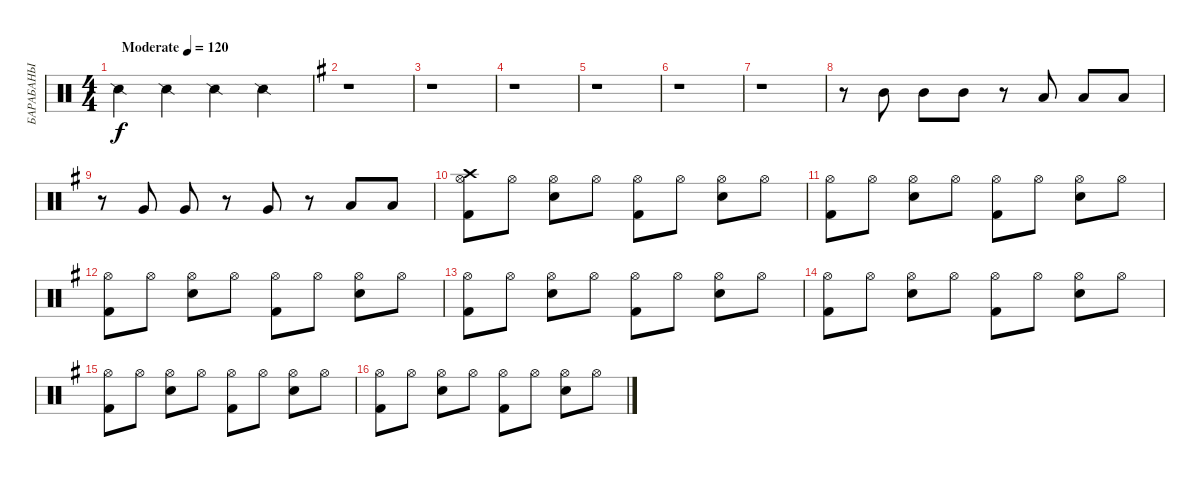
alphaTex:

\track ("БАРАБАНЫ" "БАРАБАНЫ") {instrument percussion}
\staff {score}
\articulation defaults
\ts (4 4)
\tempo (120 "Moderate")
\clef neutral
\ks c "Snare (side stick) 2".4{dy f} "Snare (side stick) 2".4 "Snare (side stick) 2".4 "Snare (side stick) 2".4
|
\ks g
r.1 |
r.1 |
r.1 |
r.1 |
r.1 |
r.1 |
r.8 "Mid Tom (hit)".8 "Mid Tom (hit)".8 "Mid Tom (hit)".8 r.8 "Low Tom (hit)".8 "Low Tom (hit)".8 "Low Tom (hit)".8 |
r.8 "Very Low Tom (hit)".8 "Very Low Tom (hit)".8 r.8 "Very Low Tom (hit)".8 r.8 "Low Floor Tom (hit)".8 "Low Floor Tom (hit)".8 |
("Hi-Hat (open)" "Crash high (hit)" "Kick (hit) 2").8 "Hi-Hat (open)".8 ("Hi-Hat (open)" "Electric Snare (hit)").8 "Hi-Hat (open)".8 ("Hi-Hat (open)" "Kick (hit) 2").8 "Hi-Hat (open)".8 ("Hi-Hat (open)" "Electric Snare (hit)").8 "Hi-Hat (open)".8 |
("Hi-Hat (open)" "Kick (hit) 2").8 "Hi-Hat (open)".8 ("Hi-Hat (open)" "Electric Snare (hit)").8 "Hi-Hat (open)".8 ("Hi-Hat (open)" "Kick (hit) 2").8 "Hi-Hat (open)".8 ("Hi-Hat (open)" "Electric Snare (hit)").8 "Hi-Hat (open)".8 |
("Hi-Hat (open)" "Kick (hit) 2").8 "Hi-Hat (open)".8 ("Hi-Hat (open)" "Electric Snare (hit)").8 "Hi-Hat (open)".8 ("Hi-Hat (open)" "Kick (hit) 2").8 "Hi-Hat (open)".8 ("Hi-Hat (open)" "Electric Snare (hit)").8 "Hi-Hat (open)".8 |
("Hi-Hat (open)" "Kick (hit) 2").8 "Hi-Hat (open)".8 ("Hi-Hat (open)" "Electric Snare (hit)").8 "Hi-Hat (open)".8 ("Hi-Hat (open)" "Kick (hit) 2").8 "Hi-Hat (open)".8 ("Hi-Hat (open)" "Electric Snare (hit)").8 "Hi-Hat (open)".8 |
("Hi-Hat (open)" "Kick (hit) 2").8 "Hi-Hat (open)".8 ("Hi-Hat (open)" "Electric Snare (hit)").8 "Hi-Hat (open)".8 ("Hi-Hat (open)" "Kick (hit) 2").8 "Hi-Hat (open)".8 ("Hi-Hat (open)" "Electric Snare (hit)").8 "Hi-Hat (open)".8 |
("Hi-Hat (open)" "Kick (hit) 2").8 "Hi-Hat (open)".8 ("Hi-Hat (open)" "Electric Snare (hit)").8 "Hi-Hat (open)".8 ("Hi-Hat (open)" "Kick (hit) 2").8 "Hi-Hat (open)".8 ("Hi-Hat (open)" "Electric Snare (hit)").8 "Hi-Hat (open)".8 |
("Hi-Hat (open)" "Kick (hit) 2").8 "Hi-Hat (open)".8 ("Hi-Hat (open)" "Electric Snare (hit)").8 "Hi-Hat (open)".8 ("Hi-Hat (open)" "Kick (hit) 2").8 "Hi-Hat (open)".8 ("Hi-Hat (open)" "Electric Snare (hit)").8 "Hi-Hat (open)".8
